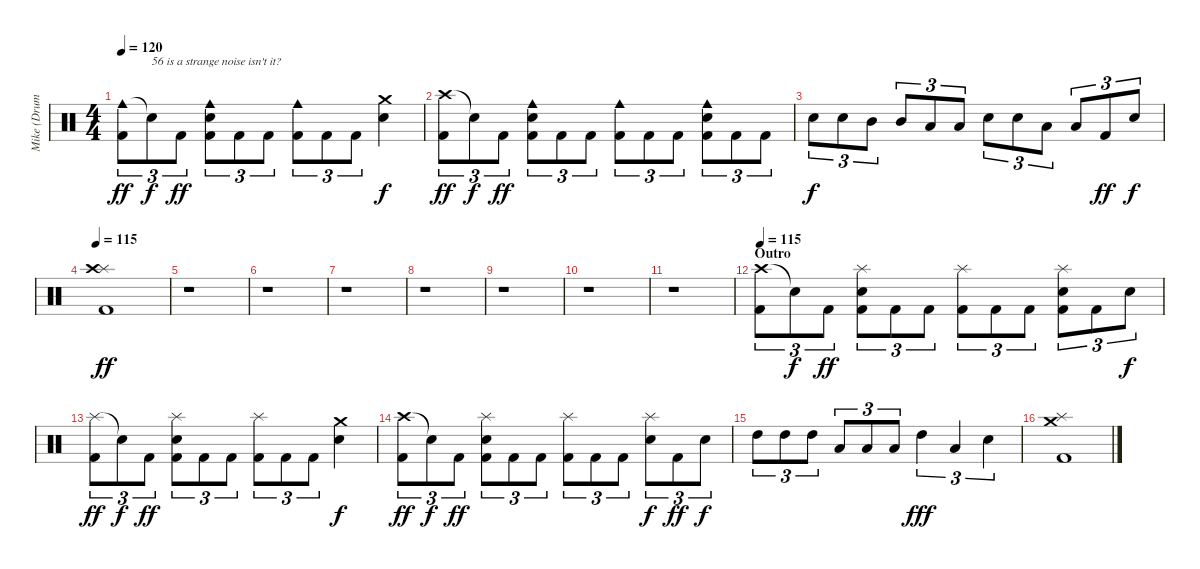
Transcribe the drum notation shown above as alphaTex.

\track ("Mike (Drums)" "Mike (Drum") {instrument percussion}
\staff {score}
\articulation defaults
\ts (4 4)
\tempo 120
\clef neutral
\ks c
("Cowbell medium (hit)" "Kick (hit) 2").8{tu (3 2) dy ff} "Snare (hit)"{t}.8{tu (3 2) txt "56 is a strange noise isn't it?" dy f} "Kick (hit) 2".8{tu (3 2) dy ff} ("Cowbell medium (hit)" "Electric Snare (hit)" "Kick (hit) 2").8{tu (3 2)} "Kick (hit) 2".8{tu (3 2)} "Kick (hit) 2".8{tu (3 2)} ("Cowbell medium (hit)" "Kick (hit) 2").8{tu (3 2)} "Kick (hit) 2".8{tu (3 2)} "Kick (hit) 2".8{tu (3 2)} ("Crash medium (hit)" "Electric Snare (hit)").4{dy f} |
("Crash high (hit)" "Kick (hit) 2").8{tu (3 2) dy ff} "Snare (hit)"{t}.8{tu (3 2) dy f} "Kick (hit) 2".8{tu (3 2) dy ff} ("Cowbell medium (hit)" "Electric Snare (hit)" "Kick (hit) 2").8{tu (3 2)} "Kick (hit) 2".8{tu (3 2)} "Kick (hit) 2".8{tu (3 2)} ("Cowbell medium (hit)" "Kick (hit) 2").8{tu (3 2)} "Kick (hit) 2".8{tu (3 2)} "Kick (hit) 2".8{tu (3 2)} ("Cowbell medium (hit)" "Electric Snare (hit)" "Kick (hit) 2").8{tu (3 2)} "Kick (hit) 2".8{tu (3 2)} "Kick (hit) 2".8{tu (3 2)} |
"Electric Snare (hit)".8{tu (3 2) dy f} "Electric Snare (hit)".8{tu (3 2)} "Mid Tom (hit)".8{tu (3 2)} "Mid Tom (hit)".8{tu (3 2)} "Low Tom (hit)".8{tu (3 2)} "Low Tom (hit)".8{tu (3 2)} "Electric Snare (hit)".8{tu (3 2)} "Electric Snare (hit)".8{tu (3 2)} "Low Tom (hit)".8{tu (3 2)} "Low Tom (hit)".8{tu (3 2)} "Kick (hit) 2".8{tu (3 2) dy ff} "Snare (hit) 2".8{tu (3 2) dy f} |
\tempo 115
("Splash (hit)" "Crash high (hit)" "Kick (hit) 2").1{dy ff} |
r.1 |
r.1 |
r.1 |
r.1 |
r.1 |
r.1 |
r.1 |
\section ("" "Outro")
\tempo 115
("Crash high (hit)" "Kick (hit) 2").8{tu (3 2)} "Snare (hit)"{t}.8{tu (3 2) dy f} "Kick (hit) 2".8{tu (3 2) dy ff} ("Splash (hit)" "Electric Snare (hit)" "Kick (hit) 2").8{tu (3 2)} "Kick (hit) 2".8{tu (3 2)} "Kick (hit) 2".8{tu (3 2)} ("Splash (hit)" "Kick (hit) 2").8{tu (3 2)} "Kick (hit) 2".8{tu (3 2)} "Kick (hit) 2".8{tu (3 2)} ("Splash (hit)" "Electric Snare (hit)" "Kick (hit) 2").8{tu (3 2)} "Kick (hit) 2".8{tu (3 2)} "Snare (hit) 2".8{tu (3 2) dy f} |
("Splash (hit)" "Kick (hit) 2").8{tu (3 2) dy ff} "Snare (hit)"{t}.8{tu (3 2) dy f} "Kick (hit) 2".8{tu (3 2) dy ff} ("Splash (hit)" "Electric Snare (hit)" "Kick (hit) 2").8{tu (3 2)} "Kick (hit) 2".8{tu (3 2)} "Kick (hit) 2".8{tu (3 2)} ("Splash (hit)" "Kick (hit) 2").8{tu (3 2)} "Kick (hit) 2".8{tu (3 2)} "Kick (hit) 2".8{tu (3 2)} ("Crash medium (hit)" "Electric Snare (hit)").4{dy f} |
("Crash high (hit)" "Kick (hit) 2").8{tu (3 2) dy ff} "Snare (hit)"{t}.8{tu (3 2) dy f} "Kick (hit) 2".8{tu (3 2) dy ff} ("Splash (hit)" "Electric Snare (hit)" "Kick (hit) 2").8{tu (3 2)} "Kick (hit) 2".8{tu (3 2)} "Kick (hit) 2".8{tu (3 2)} ("Splash (hit)" "Kick (hit) 2").8{tu (3 2)} "Kick (hit) 2".8{tu (3 2)} "Kick (hit) 2".8{tu (3 2)} ("Splash (hit)" "Electric Snare (hit)").8{tu (3 2) dy f} "Kick (hit) 2".8{tu (3 2) dy ff} "Snare (hit) 2".8{tu (3 2) dy f} |
"High Tom (hit)".8{tu (3 2)} "High Tom (hit)".8{tu (3 2)} "High Tom (hit)".8{tu (3 2)} "Low Tom (hit)".8{tu (3 2)} "Low Tom (hit)".8{tu (3 2)} "Low Tom (hit)".8{tu (3 2)} "High Tom (hit)".4{tu (3 2) dy fff} "Low Floor Tom (hit)".4{tu (3 2)} "Snare (hit) 2".4{tu (3 2)} |
("Crash medium (hit)" "Splash (hit)" "Kick (hit) 2").1
